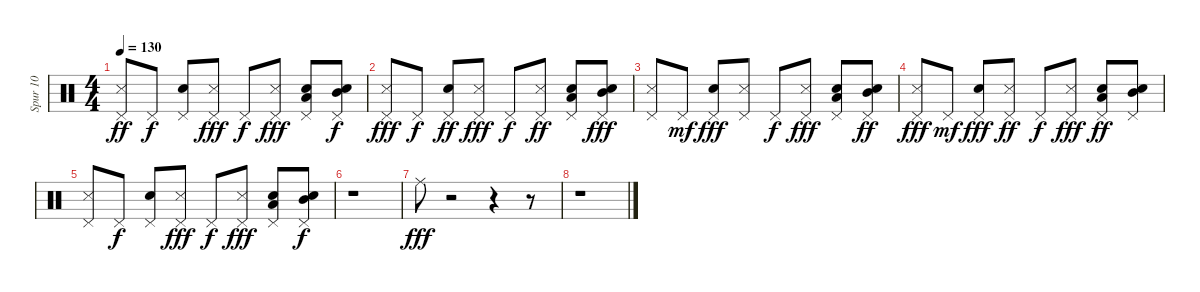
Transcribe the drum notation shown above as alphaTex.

\track ("Spur 10" "Spur 10") {instrument percussion}
\staff {score}
\articulation defaults
\ts (4 4)
\tempo 130
\clef neutral
\ks c
("Metronome (hit)" "Pedal Hi-Hat (hit)").8{dy ff} "Pedal Hi-Hat (hit)".8{dy f} ("Snare (hit) 2" "Pedal Hi-Hat (hit)").8 ("Metronome (hit)" "Pedal Hi-Hat (hit)").8{dy fff} "Pedal Hi-Hat (hit)".8{dy f} ("Metronome (hit)" "Pedal Hi-Hat (hit)").8{dy fff} ("Snare (hit) 2" "Low Tom (hit)" "Pedal Hi-Hat (hit)").8 ("Snare (hit) 2" "Mid Tom (hit)" "Pedal Hi-Hat (hit)").8{dy f} |
("Pedal Hi-Hat (hit)" "Metronome (hit)").8{dy fff} "Pedal Hi-Hat (hit)".8{dy f} ("Snare (hit) 2" "Pedal Hi-Hat (hit)").8{dy ff} ("Metronome (hit)" "Pedal Hi-Hat (hit)").8{dy fff} "Pedal Hi-Hat (hit)".8{dy f} ("Metronome (hit)" "Pedal Hi-Hat (hit)").8{dy ff} ("Low Tom (hit)" "Snare (hit) 2" "Pedal Hi-Hat (hit)").8 ("Mid Tom (hit)" "Snare (hit) 2" "Pedal Hi-Hat (hit)").8{dy fff} |
("Pedal Hi-Hat (hit)" "Metronome (hit)").8 "Pedal Hi-Hat (hit)".8{dy mf} ("Pedal Hi-Hat (hit)" "Snare (hit) 2").8{dy fff} ("Pedal Hi-Hat (hit)" "Metronome (hit)").8 "Pedal Hi-Hat (hit)".8{dy f} ("Pedal Hi-Hat (hit)" "Metronome (hit)").8{dy fff} ("Low Tom (hit)" "Pedal Hi-Hat (hit)" "Snare (hit) 2").8 ("Mid Tom (hit)" "Pedal Hi-Hat (hit)" "Snare (hit) 2").8{dy ff} |
("Pedal Hi-Hat (hit)" "Metronome (hit)").8{dy fff} "Pedal Hi-Hat (hit)".8{dy mf} ("Pedal Hi-Hat (hit)" "Snare (hit) 2").8{dy fff} ("Metronome (hit)" "Pedal Hi-Hat (hit)").8{dy ff} "Pedal Hi-Hat (hit)".8{dy f} ("Metronome (hit)" "Pedal Hi-Hat (hit)").8{dy fff} ("Snare (hit) 2" "Low Tom (hit)" "Pedal Hi-Hat (hit)").8{dy ff} ("Snare (hit) 2" "Mid Tom (hit)" "Pedal Hi-Hat (hit)").8 |
("Metronome (hit)" "Pedal Hi-Hat (hit)").8 "Pedal Hi-Hat (hit)".8{dy f} ("Snare (hit) 2" "Pedal Hi-Hat (hit)").8 ("Metronome (hit)" "Pedal Hi-Hat (hit)").8{dy fff} "Pedal Hi-Hat (hit)".8{dy f} ("Metronome (hit)" "Pedal Hi-Hat (hit)").8{dy fff} ("Snare (hit) 2" "Low Tom (hit)" "Pedal Hi-Hat (hit)").8 ("Snare (hit) 2" "Mid Tom (hit)" "Pedal Hi-Hat (hit)").8{dy f} |
r.1 |
"Ride (middle)".8{dy fff} r.2 r.4 r.8 |
r.1
